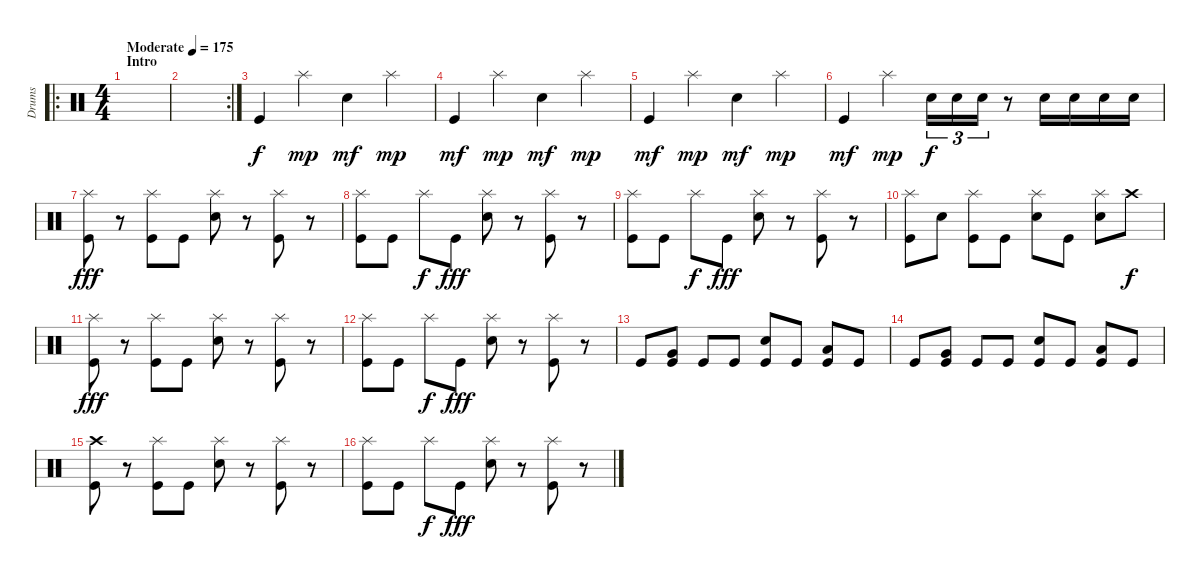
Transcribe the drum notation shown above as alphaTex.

\track ("Drums" "Drums") {instrument percussion}
\staff {score}
\articulation defaults
\ro
\ts (4 4)
\section ("" "Intro")
\tempo (175 "Moderate")
\clef neutral
\ks c
|
\rc 2
|
"Kick (hit)".4 "Splash (hit)".4{dy mp} "Electric Snare (hit)".4{dy mf} "Splash (hit)".4{dy mp} |
"Kick (hit)".4{dy mf} "Splash (hit)".4{dy mp} "Electric Snare (hit)".4{dy mf} "Splash (hit)".4{dy mp} |
"Kick (hit)".4{dy mf} "Splash (hit)".4{dy mp} "Electric Snare (hit)".4{dy mf} "Splash (hit)".4{dy mp} |
"Kick (hit)".4{dy mf} "Splash (hit)".4{dy mp} "Electric Snare (hit)".16{tu (3 2) dy f} "Electric Snare (hit)".16{tu (3 2)} "Electric Snare (hit)".16{tu (3 2)} r.8 "Electric Snare (hit)".16 "Electric Snare (hit)".16 "Electric Snare (hit)".16 "Electric Snare (hit)".16 |
("Splash (hit)" "Kick (hit)").8{dy fff} r.8 ("Splash (hit)" "Kick (hit)").8 "Kick (hit)".8 ("Splash (hit)" "Electric Snare (hit)").8 r.8 ("Splash (hit)" "Kick (hit)").8 r.8 |
("Splash (hit)" "Kick (hit)").8 "Kick (hit)".8 "Splash (hit)".8{dy f} "Kick (hit)".8{dy fff} ("Splash (hit)" "Electric Snare (hit)").8 r.8 ("Splash (hit)" "Kick (hit)").8 r.8 |
("Splash (hit)" "Kick (hit)").8 "Kick (hit)".8 "Splash (hit)".8{dy f} "Kick (hit)".8{dy fff} ("Splash (hit)" "Electric Snare (hit)").8 r.8 ("Splash (hit)" "Kick (hit)").8 r.8 |
("Splash (hit)" "Kick (hit)").8 "Electric Snare (hit)".8 ("Splash (hit)" "Kick (hit)").8 "Kick (hit)".8 ("Splash (hit)" "Electric Snare (hit)").8 "Kick (hit)".8 ("Splash (hit)" "Electric Snare (hit)").8 "Crash high (hit)".8{dy f} |
("Splash (hit)" "Kick (hit)").8{dy fff} r.8 ("Splash (hit)" "Kick (hit)").8 "Kick (hit)".8 ("Splash (hit)" "Electric Snare (hit)").8 r.8 ("Splash (hit)" "Kick (hit)").8 r.8 |
("Splash (hit)" "Kick (hit)").8 "Kick (hit)".8 "Splash (hit)".8{dy f} "Kick (hit)".8{dy fff} ("Splash (hit)" "Electric Snare (hit)").8 r.8 ("Splash (hit)" "Kick (hit)").8 r.8 |
"Kick (hit)".8 ("Very Low Tom (hit)" "Kick (hit)").8 "Kick (hit)".8 "Kick (hit)".8 ("Electric Snare (hit)" "Kick (hit)").8 "Kick (hit)".8 ("Low Floor Tom (hit)" "Kick (hit)").8 "Kick (hit)".8 |
"Kick (hit)".8 ("Very Low Tom (hit)" "Kick (hit)").8 "Kick (hit)".8 "Kick (hit)".8 ("Electric Snare (hit)" "Kick (hit)").8 "Kick (hit)".8 ("Low Floor Tom (hit)" "Kick (hit)").8 "Kick (hit)".8 |
("Crash high (hit)" "Kick (hit)").8 r.8 ("Splash (hit)" "Kick (hit)").8 "Kick (hit)".8 ("Splash (hit)" "Electric Snare (hit)").8 r.8 ("Splash (hit)" "Kick (hit)").8 r.8 |
("Splash (hit)" "Kick (hit)").8 "Kick (hit)".8 "Splash (hit)".8{dy f} "Kick (hit)".8{dy fff} ("Splash (hit)" "Electric Snare (hit)").8 r.8 ("Splash (hit)" "Kick (hit)").8 r.8
